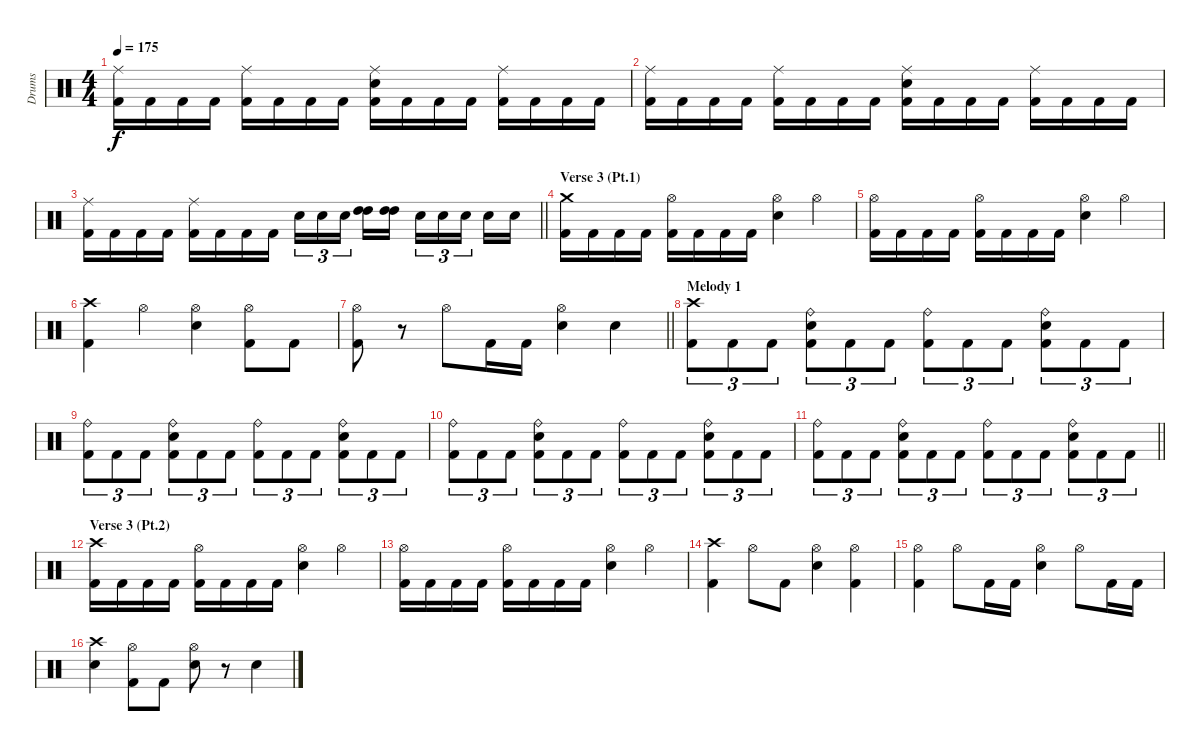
\track ("Drums" "Drums") {instrument percussion}
\staff {score}
\articulation defaults
\ts (4 4)
\tempo 175
\clef neutral
\ks c
("Ride (middle)" "Kick (hit) 2").16{dy f} "Kick (hit) 2".16 "Kick (hit) 2".16 "Kick (hit) 2".16 ("Ride (middle)" "Kick (hit) 2").16 "Kick (hit) 2".16 "Kick (hit) 2".16 "Kick (hit) 2".16 ("Ride (middle)" "Electric Snare (hit)" "Kick (hit) 2").16 "Kick (hit) 2".16 "Kick (hit) 2".16 "Kick (hit) 2".16 ("Ride (middle)" "Kick (hit) 2").16 "Kick (hit) 2".16 "Kick (hit) 2".16 "Kick (hit) 2".16 |
("Ride (middle)" "Kick (hit) 2").16 "Kick (hit) 2".16 "Kick (hit) 2".16 "Kick (hit) 2".16 ("Ride (middle)" "Kick (hit) 2").16 "Kick (hit) 2".16 "Kick (hit) 2".16 "Kick (hit) 2".16 ("Ride (middle)" "Electric Snare (hit)" "Kick (hit) 2").16 "Kick (hit) 2".16 "Kick (hit) 2".16 "Kick (hit) 2".16 ("Ride (middle)" "Kick (hit) 2").16 "Kick (hit) 2".16 "Kick (hit) 2".16 "Kick (hit) 2".16 |
\barLineRight lightlight
("Ride (middle)" "Kick (hit) 2").16 "Kick (hit) 2".16 "Kick (hit) 2".16 "Kick (hit) 2".16 ("Ride (middle)" "Kick (hit) 2").16 "Kick (hit) 2".16 "Kick (hit) 2".16 "Kick (hit) 2".16 "Electric Snare (hit)".16{tu (3 2)} "Electric Snare (hit)".16{tu (3 2)} "Electric Snare (hit)".16{tu (3 2) beam splitsecondary} ("High Tom (hit)" "High Tom (hit)").16 ("High Tom (hit)" "High Tom (hit)").16 "Electric Snare (hit)".16{tu (3 2)} "Electric Snare (hit)".16{tu (3 2)} "Electric Snare (hit)".16{tu (3 2) beam splitsecondary} "Electric Snare (hit)".16 "Electric Snare (hit)".16 |
\section ("" "Verse 3 (Pt.1)")
("Crash medium (hit)" "Kick (hit) 2").16 "Kick (hit) 2".16 "Kick (hit) 2".16 "Kick (hit) 2".16 ("Hi-Hat (open)" "Kick (hit) 2").16 "Kick (hit) 2".16 "Kick (hit) 2".16 "Kick (hit) 2".16 ("Hi-Hat (open)" "Electric Snare (hit)").4 "Hi-Hat (open)".4 |
("Hi-Hat (open)" "Kick (hit) 2").16 "Kick (hit) 2".16 "Kick (hit) 2".16 "Kick (hit) 2".16 ("Hi-Hat (open)" "Kick (hit) 2").16 "Kick (hit) 2".16 "Kick (hit) 2".16 "Kick (hit) 2".16 ("Hi-Hat (open)" "Electric Snare (hit)").4 "Hi-Hat (open)".4 |
("Crash high (hit)" "Kick (hit) 2").4 "Hi-Hat (open)".4 ("Hi-Hat (open)" "Electric Snare (hit)").4 ("Hi-Hat (open)" "Kick (hit) 2").8 "Kick (hit) 2".8 |
\barLineRight lightlight
("Hi-Hat (open)" "Kick (hit) 2").8 r.8 "Hi-Hat (open)".8 "Kick (hit) 2".16 "Kick (hit) 2".16 ("Hi-Hat (open)" "Electric Snare (hit)").4 "Electric Snare (hit)".4 |
\section ("" "Melody 1")
("Crash high (hit)" "Kick (hit) 2").8{tu (3 2)} "Kick (hit) 2".8{tu (3 2)} "Kick (hit) 2".8{tu (3 2)} ("Ride (bell)" "Electric Snare (hit)" "Kick (hit) 2").8{tu (3 2)} "Kick (hit) 2".8{tu (3 2)} "Kick (hit) 2".8{tu (3 2)} ("Ride (bell)" "Kick (hit) 2").8{tu (3 2)} "Kick (hit) 2".8{tu (3 2)} "Kick (hit) 2".8{tu (3 2)} ("Ride (bell)" "Electric Snare (hit)" "Kick (hit) 2").8{tu (3 2)} "Kick (hit) 2".8{tu (3 2)} "Kick (hit) 2".8{tu (3 2)} |
("Ride (bell)" "Kick (hit) 2").8{tu (3 2)} "Kick (hit) 2".8{tu (3 2)} "Kick (hit) 2".8{tu (3 2)} ("Ride (bell)" "Electric Snare (hit)" "Kick (hit) 2").8{tu (3 2)} "Kick (hit) 2".8{tu (3 2)} "Kick (hit) 2".8{tu (3 2)} ("Ride (bell)" "Kick (hit) 2").8{tu (3 2)} "Kick (hit) 2".8{tu (3 2)} "Kick (hit) 2".8{tu (3 2)} ("Ride (bell)" "Electric Snare (hit)" "Kick (hit) 2").8{tu (3 2)} "Kick (hit) 2".8{tu (3 2)} "Kick (hit) 2".8{tu (3 2)} |
("Ride (bell)" "Kick (hit) 2").8{tu (3 2)} "Kick (hit) 2".8{tu (3 2)} "Kick (hit) 2".8{tu (3 2)} ("Ride (bell)" "Electric Snare (hit)" "Kick (hit) 2").8{tu (3 2)} "Kick (hit) 2".8{tu (3 2)} "Kick (hit) 2".8{tu (3 2)} ("Ride (bell)" "Kick (hit) 2").8{tu (3 2)} "Kick (hit) 2".8{tu (3 2)} "Kick (hit) 2".8{tu (3 2)} ("Ride (bell)" "Electric Snare (hit)" "Kick (hit) 2").8{tu (3 2)} "Kick (hit) 2".8{tu (3 2)} "Kick (hit) 2".8{tu (3 2)} |
\barLineRight lightlight
("Ride (bell)" "Kick (hit) 2").8{tu (3 2)} "Kick (hit) 2".8{tu (3 2)} "Kick (hit) 2".8{tu (3 2)} ("Ride (bell)" "Electric Snare (hit)" "Kick (hit) 2").8{tu (3 2)} "Kick (hit) 2".8{tu (3 2)} "Kick (hit) 2".8{tu (3 2)} ("Ride (bell)" "Kick (hit) 2").8{tu (3 2)} "Kick (hit) 2".8{tu (3 2)} "Kick (hit) 2".8{tu (3 2)} ("Ride (bell)" "Electric Snare (hit)" "Kick (hit) 2").8{tu (3 2)} "Kick (hit) 2".8{tu (3 2)} "Kick (hit) 2".8{tu (3 2)} |
\section ("" "Verse 3 (Pt.2)")
("Crash high (hit)" "Kick (hit) 2").16 "Kick (hit) 2".16 "Kick (hit) 2".16 "Kick (hit) 2".16 ("Hi-Hat (open)" "Kick (hit) 2").16 "Kick (hit) 2".16 "Kick (hit) 2".16 "Kick (hit) 2".16 ("Hi-Hat (open)" "Electric Snare (hit)").4 "Hi-Hat (open)".4 |
("Hi-Hat (open)" "Kick (hit) 2").16 "Kick (hit) 2".16 "Kick (hit) 2".16 "Kick (hit) 2".16 ("Hi-Hat (open)" "Kick (hit) 2").16 "Kick (hit) 2".16 "Kick (hit) 2".16 "Kick (hit) 2".16 ("Hi-Hat (open)" "Electric Snare (hit)").4 "Hi-Hat (open)".4 |
("Crash high (hit)" "Kick (hit) 2").4 "Hi-Hat (open)".8 "Kick (hit) 2".8 ("Hi-Hat (open)" "Electric Snare (hit)").4 ("Hi-Hat (open)" "Kick (hit) 2").4 |
("Hi-Hat (open)" "Kick (hit) 2").4 "Hi-Hat (open)".8 "Kick (hit) 2".16 "Kick (hit) 2".16 ("Hi-Hat (open)" "Electric Snare (hit)").4 "Hi-Hat (open)".8 "Kick (hit) 2".16 "Kick (hit) 2".16 |
("Crash high (hit)" "Electric Snare (hit)").4 ("Hi-Hat (open)" "Kick (hit) 2").8 "Kick (hit) 2".8 ("Hi-Hat (open)" "Electric Snare (hit)").8 r.8 "Electric Snare (hit)".4
